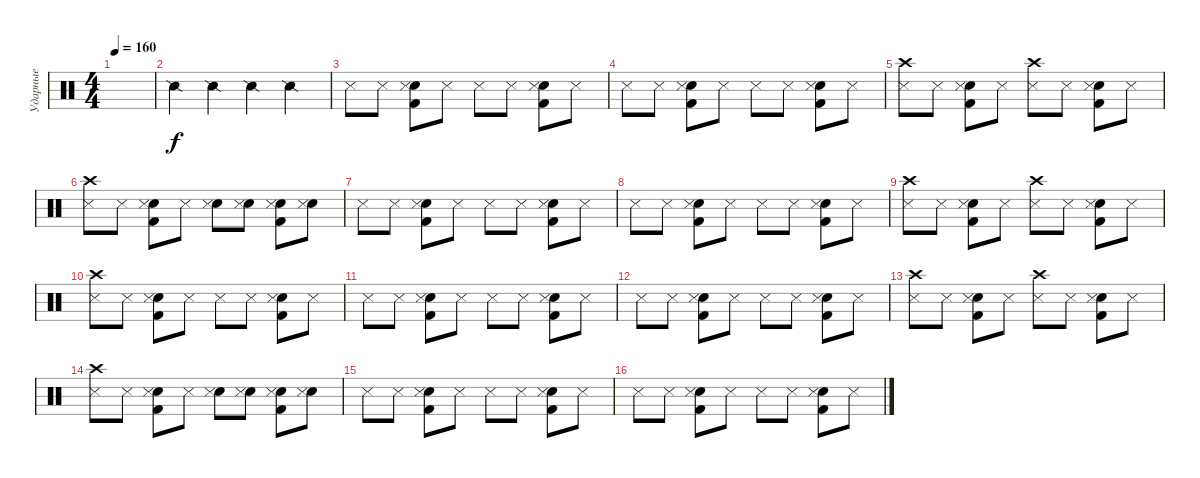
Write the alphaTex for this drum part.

\track ("Ударные" "Ударные") {instrument percussion}
\staff {score}
\articulation defaults
\ts (4 4)
\tempo 160
\clef neutral
\ks c
|
"Snare (side stick) 2".4 "Snare (side stick) 2".4 "Snare (side stick) 2".4 "Snare (side stick) 2".4 |
"Snare (side stick) 3".8 "Snare (side stick) 3".8 ("Kick (hit) 2" "Snare (hit) 2" "Snare (side stick) 3").8 "Snare (side stick) 3".8 "Snare (side stick) 3".8 "Snare (side stick) 3".8 ("Kick (hit) 2" "Snare (hit) 2" "Snare (side stick) 3").8 "Snare (side stick) 3".8 |
"Snare (side stick) 3".8 "Snare (side stick) 3".8 ("Kick (hit) 2" "Snare (hit) 2" "Snare (side stick) 3").8 "Snare (side stick) 3".8 "Snare (side stick) 3".8 "Snare (side stick) 3".8 ("Kick (hit) 2" "Snare (hit) 2" "Snare (side stick) 3").8 "Snare (side stick) 3".8 |
("Crash high (hit)" "Snare (side stick) 3").8 "Snare (side stick) 3".8 ("Kick (hit) 2" "Snare (hit) 2" "Snare (side stick) 3").8 "Snare (side stick) 3".8 ("Crash high (hit)" "Snare (side stick) 3").8 "Snare (side stick) 3".8 ("Kick (hit) 2" "Snare (hit) 2" "Snare (side stick) 3").8 "Snare (side stick) 3".8 |
("Crash high (hit)" "Snare (side stick) 3").8 "Snare (side stick) 3".8 ("Kick (hit) 2" "Snare (hit) 2" "Snare (side stick) 3").8 "Snare (side stick) 3".8 ("Snare (hit) 2" "Snare (side stick) 3").8 ("Snare (hit) 2" "Snare (side stick) 3").8 ("Kick (hit) 2" "Snare (hit) 2" "Snare (side stick) 3").8 ("Snare (hit) 2" "Snare (side stick) 3").8 |
"Snare (side stick) 3".8 "Snare (side stick) 3".8 ("Kick (hit) 2" "Snare (hit) 2" "Snare (side stick) 3").8 "Snare (side stick) 3".8 "Snare (side stick) 3".8 "Snare (side stick) 3".8 ("Kick (hit) 2" "Snare (hit) 2" "Snare (side stick) 3").8 "Snare (side stick) 3".8 |
"Snare (side stick) 3".8 "Snare (side stick) 3".8 ("Kick (hit) 2" "Snare (hit) 2" "Snare (side stick) 3").8 "Snare (side stick) 3".8 "Snare (side stick) 3".8 "Snare (side stick) 3".8 ("Kick (hit) 2" "Snare (hit) 2" "Snare (side stick) 3").8 "Snare (side stick) 3".8 |
("Crash high (hit)" "Snare (side stick) 3").8 "Snare (side stick) 3".8 ("Kick (hit) 2" "Snare (hit) 2" "Snare (side stick) 3").8 "Snare (side stick) 3".8 ("Crash high (hit)" "Snare (side stick) 3").8 "Snare (side stick) 3".8 ("Kick (hit) 2" "Snare (hit) 2" "Snare (side stick) 3").8 "Snare (side stick) 3".8 |
("Crash high (hit)" "Snare (side stick) 3").8 "Snare (side stick) 3".8 ("Kick (hit) 2" "Snare (hit) 2" "Snare (side stick) 3").8 "Snare (side stick) 3".8 "Snare (side stick) 3".8 "Snare (side stick) 3".8 ("Kick (hit) 2" "Snare (hit) 2" "Snare (side stick) 3").8 "Snare (side stick) 3".8 |
"Snare (side stick) 3".8 "Snare (side stick) 3".8 ("Kick (hit) 2" "Snare (hit) 2" "Snare (side stick) 3").8 "Snare (side stick) 3".8 "Snare (side stick) 3".8 "Snare (side stick) 3".8 ("Kick (hit) 2" "Snare (hit) 2" "Snare (side stick) 3").8 "Snare (side stick) 3".8 |
"Snare (side stick) 3".8 "Snare (side stick) 3".8 ("Kick (hit) 2" "Snare (hit) 2" "Snare (side stick) 3").8 "Snare (side stick) 3".8 "Snare (side stick) 3".8 "Snare (side stick) 3".8 ("Kick (hit) 2" "Snare (hit) 2" "Snare (side stick) 3").8 "Snare (side stick) 3".8 |
("Crash high (hit)" "Snare (side stick) 3").8 "Snare (side stick) 3".8 ("Kick (hit) 2" "Snare (hit) 2" "Snare (side stick) 3").8 "Snare (side stick) 3".8 ("Crash high (hit)" "Snare (side stick) 3").8 "Snare (side stick) 3".8 ("Kick (hit) 2" "Snare (hit) 2" "Snare (side stick) 3").8 "Snare (side stick) 3".8 |
("Crash high (hit)" "Snare (side stick) 3").8 "Snare (side stick) 3".8 ("Kick (hit) 2" "Snare (hit) 2" "Snare (side stick) 3").8 "Snare (side stick) 3".8 ("Snare (hit) 2" "Snare (side stick) 3").8 ("Snare (hit) 2" "Snare (side stick) 3").8 ("Kick (hit) 2" "Snare (hit) 2" "Snare (side stick) 3").8 ("Snare (hit) 2" "Snare (side stick) 3").8 |
"Snare (side stick) 3".8 "Snare (side stick) 3".8 ("Kick (hit) 2" "Snare (hit) 2" "Snare (side stick) 3").8 "Snare (side stick) 3".8 "Snare (side stick) 3".8 "Snare (side stick) 3".8 ("Kick (hit) 2" "Snare (hit) 2" "Snare (side stick) 3").8 "Snare (side stick) 3".8 |
"Snare (side stick) 3".8 "Snare (side stick) 3".8 ("Kick (hit) 2" "Snare (hit) 2" "Snare (side stick) 3").8 "Snare (side stick) 3".8 "Snare (side stick) 3".8 "Snare (side stick) 3".8 ("Kick (hit) 2" "Snare (hit) 2" "Snare (side stick) 3").8 "Snare (side stick) 3".8
